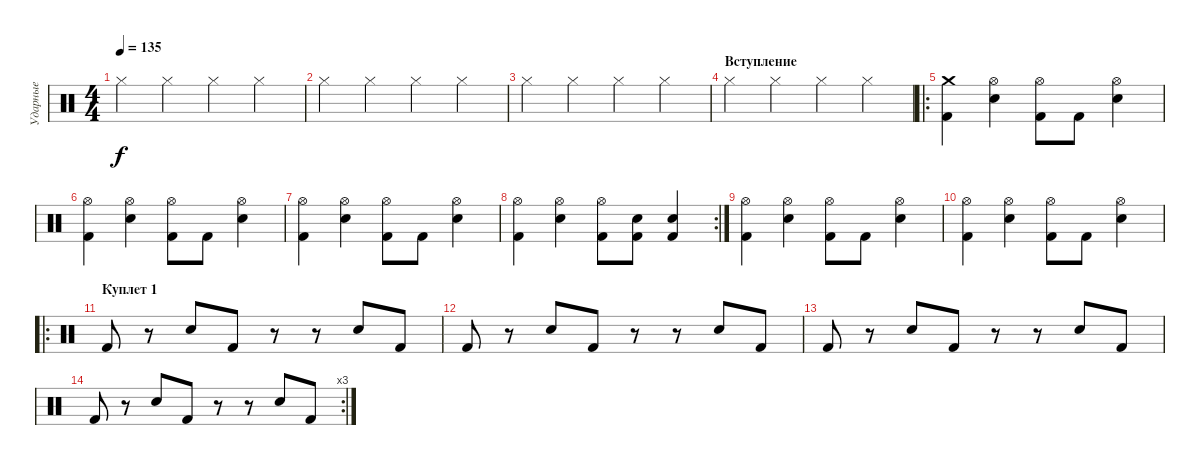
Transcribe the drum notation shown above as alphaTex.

\track ("Ударные" "Ударные") {instrument percussion}
\staff {score}
\articulation defaults
\ts (4 4)
\tempo 135
\clef neutral
\ks c "Hi-Hat (closed)".4{dy f} "Hi-Hat (closed)".4 "Hi-Hat (closed)".4 "Hi-Hat (closed)".4
|
"Hi-Hat (closed)".4 "Hi-Hat (closed)".4 "Hi-Hat (closed)".4 "Hi-Hat (closed)".4 |
"Hi-Hat (closed)".4 "Hi-Hat (closed)".4 "Hi-Hat (closed)".4 "Hi-Hat (closed)".4 |
\section ("" "Вступление")
"Hi-Hat (closed)".4 "Hi-Hat (closed)".4 "Hi-Hat (closed)".4 "Hi-Hat (closed)".4 |
\ro
("Crash medium (hit)" "Kick (hit) 2").4 ("Hi-Hat (open)" "Electric Snare (hit)").4 ("Hi-Hat (open)" "Kick (hit) 2").8 "Kick (hit) 2".8 ("Hi-Hat (open)" "Electric Snare (hit)").4 |
("Hi-Hat (open)" "Kick (hit) 2").4 ("Hi-Hat (open)" "Electric Snare (hit)").4 ("Hi-Hat (open)" "Kick (hit) 2").8 "Kick (hit) 2".8 ("Hi-Hat (open)" "Electric Snare (hit)").4 |
("Hi-Hat (open)" "Kick (hit) 2").4 ("Hi-Hat (open)" "Electric Snare (hit)").4 ("Hi-Hat (open)" "Kick (hit) 2").8 "Kick (hit) 2".8 ("Hi-Hat (open)" "Electric Snare (hit)").4 |
\rc 2
("Hi-Hat (open)" "Kick (hit) 2").4 ("Hi-Hat (open)" "Electric Snare (hit)").4 ("Hi-Hat (open)" "Kick (hit) 2").8 ("Electric Snare (hit)" "Kick (hit) 2").8 ("Kick (hit) 2" "Electric Snare (hit)").4 |
("Hi-Hat (open)" "Kick (hit) 2").4 ("Hi-Hat (open)" "Electric Snare (hit)").4 ("Hi-Hat (open)" "Kick (hit) 2").8 "Kick (hit) 2".8 ("Hi-Hat (open)" "Electric Snare (hit)").4 |
("Hi-Hat (open)" "Kick (hit) 2").4 ("Hi-Hat (open)" "Electric Snare (hit)").4 ("Hi-Hat (open)" "Kick (hit) 2").8 "Kick (hit) 2".8 ("Hi-Hat (open)" "Electric Snare (hit)").4 |
\ro
\section ("" "Куплет 1")
"Kick (hit) 2".8 r.8 "Electric Snare (hit)".8 "Kick (hit) 2".8 r.8 r.8 "Electric Snare (hit)".8 "Kick (hit) 2".8 |
"Kick (hit) 2".8 r.8 "Electric Snare (hit)".8 "Kick (hit) 2".8 r.8 r.8 "Electric Snare (hit)".8 "Kick (hit) 2".8 |
"Kick (hit) 2".8 r.8 "Electric Snare (hit)".8 "Kick (hit) 2".8 r.8 r.8 "Electric Snare (hit)".8 "Kick (hit) 2".8 |
\rc 3 "Kick (hit) 2".8
r.8 "Electric Snare (hit)".8 "Kick (hit) 2".8 r.8 r.8 "Electric Snare (hit)".8 "Kick (hit) 2".8
